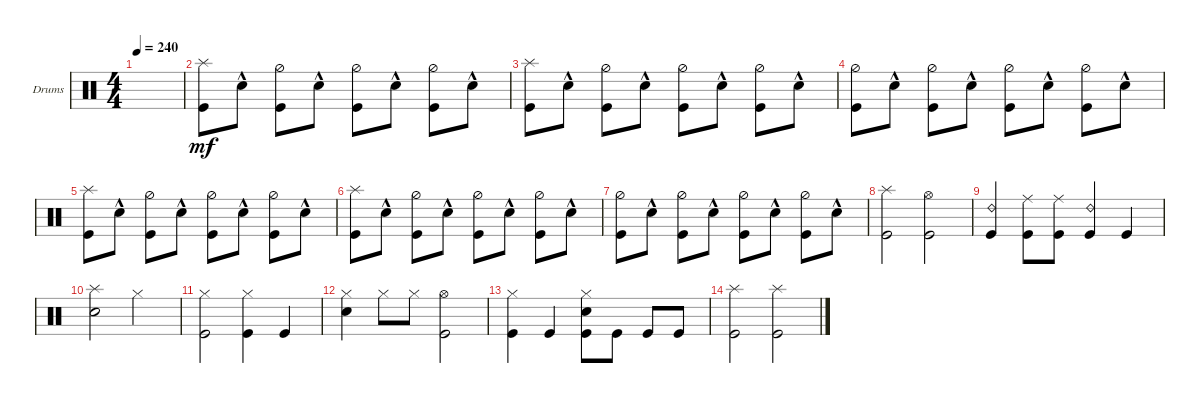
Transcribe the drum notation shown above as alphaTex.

\defaultSystemsLayout 4
\bracketExtendMode groupsimilarinstruments
\firstSystemTrackNameOrientation horizontal
\otherSystemsTrackNameOrientation horizontal
\track ("Drumkit" "Drums") {instrument percussion}
\staff {score}
\articulation defaults
\ts (4 4)
\tempo 240
\clef neutral
\ks c
|
("Splash (hit)" "Kick (hit)").8{dy mf} "Snare (hit) 2"{hac}.8 ("Hi-Hat (half)" "Kick (hit)").8 "Snare (hit) 2"{hac}.8 ("Hi-Hat (half)" "Kick (hit)").8 "Snare (hit) 2"{hac}.8 ("Kick (hit)" "Hi-Hat (half)").8 "Snare (hit) 2"{hac}.8 |
("Splash (hit)" "Kick (hit)").8 "Snare (hit) 2"{hac}.8 ("Hi-Hat (half)" "Kick (hit)").8 "Snare (hit) 2"{hac}.8 ("Hi-Hat (half)" "Kick (hit)").8 "Snare (hit) 2"{hac}.8 ("Kick (hit)" "Hi-Hat (half)").8 "Snare (hit) 2"{hac}.8 |
("Kick (hit)" "Hi-Hat (half)").8 "Snare (hit) 2"{hac}.8 ("Hi-Hat (half)" "Kick (hit)").8 "Snare (hit) 2"{hac}.8 ("Hi-Hat (half)" "Kick (hit)").8 "Snare (hit) 2"{hac}.8 ("Kick (hit)" "Hi-Hat (half)").8 "Snare (hit) 2"{hac}.8 |
("Splash (hit)" "Kick (hit)").8 "Snare (hit) 2"{hac}.8 ("Hi-Hat (half)" "Kick (hit)").8 "Snare (hit) 2"{hac}.8 ("Hi-Hat (half)" "Kick (hit)").8 "Snare (hit) 2"{hac}.8 ("Kick (hit)" "Hi-Hat (half)").8 "Snare (hit) 2"{hac}.8 |
("Splash (hit)" "Kick (hit)").8 "Snare (hit) 2"{hac}.8 ("Hi-Hat (half)" "Kick (hit)").8 "Snare (hit) 2"{hac}.8 ("Hi-Hat (half)" "Kick (hit)").8 "Snare (hit) 2"{hac}.8 ("Kick (hit)" "Hi-Hat (half)").8 "Snare (hit) 2"{hac}.8 |
("Kick (hit)" "Hi-Hat (half)").8 "Snare (hit) 2"{hac}.8 ("Hi-Hat (half)" "Kick (hit)").8 "Snare (hit) 2"{hac}.8 ("Hi-Hat (half)" "Kick (hit)").8 "Snare (hit) 2"{hac}.8 ("Kick (hit)" "Hi-Hat (half)").8 "Snare (hit) 2"{hac}.8 |
("Splash (hit)" "Kick (hit)").2 ("Hi-Hat (open)" "Kick (hit)").2 |
("Ride (bell) 2" "Kick (hit)").4 ("Ride (middle)" "Kick (hit)").8 ("Ride (middle)" "Kick (hit)").8 ("Ride (bell) 2" "Kick (hit)").4 "Kick (hit)".4 |
("Snare (hit) 2" "Splash (hit)").2 "Hi-Hat (closed)".2 |
("Hi-Hat (closed)" "Kick (hit)").2 ("Hi-Hat (closed)" "Kick (hit)").4 "Kick (hit)".4 |
("Snare (hit) 2" "Hi-Hat (closed)").4 "Hi-Hat (closed)".8 "Hi-Hat (closed)".8 ("Hi-Hat (open)" "Kick (hit)").2 |
("Kick (hit)" "Hi-Hat (closed)").4 "Kick (hit)".4 ("Kick (hit)" "Snare (hit) 2" "Hi-Hat (closed)").8 "Kick (hit)".8 "Kick (hit)".8 "Kick (hit)".8 |
("Splash (hit)" "Kick (hit)").2 ("Splash (hit)" "Kick (hit)").2
